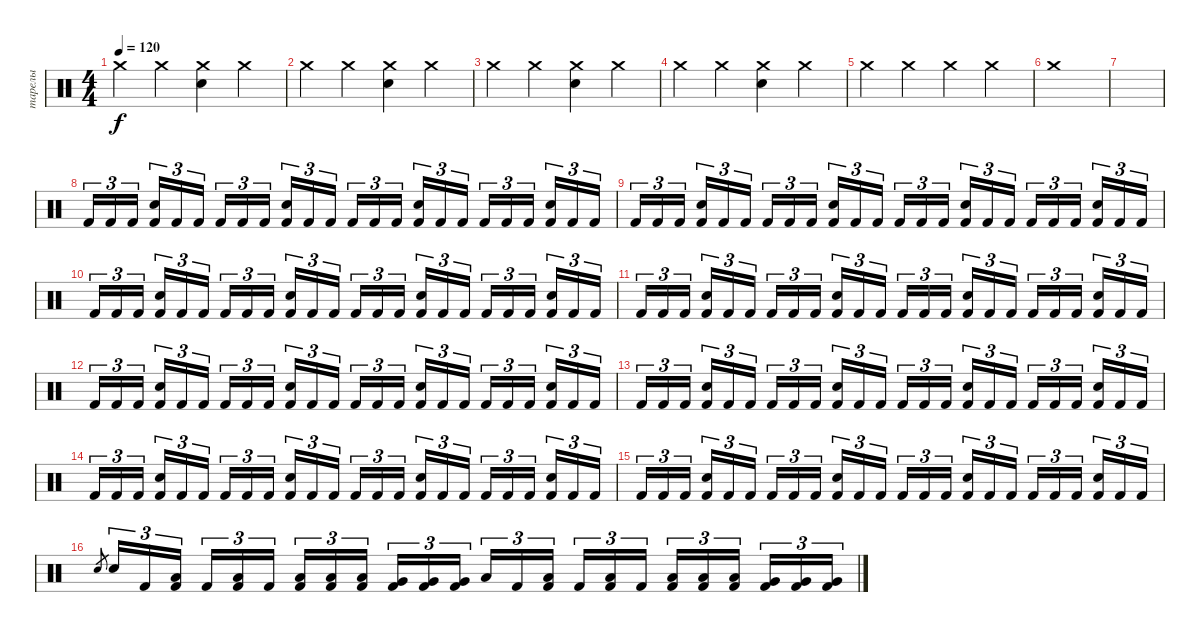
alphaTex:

\track ("тарелы" "тарелы") {instrument percussion}
\staff {score}
\articulation defaults
\ts (4 4)
\tempo 120
\clef neutral
\ks c "Crash medium (hit)".4{dy f} "Crash medium (hit)".4
("Crash medium (hit)" "Snare (hit) 2").4 "Crash medium (hit)".4 |
"Crash medium (hit)".4 "Crash medium (hit)".4 ("Crash medium (hit)" "Snare (hit) 2").4 "Crash medium (hit)".4 |
"Crash medium (hit)".4 "Crash medium (hit)".4 ("Crash medium (hit)" "Snare (hit) 2").4 "Crash medium (hit)".4 |
"Crash medium (hit)".4 "Crash medium (hit)".4 ("Crash medium (hit)" "Snare (hit) 2").4 "Crash medium (hit)".4 |
"Crash medium (hit)".4 "Crash medium (hit)".4 "Crash medium (hit)".4 "Crash medium (hit)".4 |
"Crash medium (hit)".1 |
|
"Kick (hit) 2".16{tu (3 2)} "Kick (hit) 2".16{tu (3 2)} "Kick (hit) 2".16{tu (3 2) beam splitsecondary} ("Snare (hit) 2" "Kick (hit) 2").16{tu (3 2)} "Kick (hit) 2".16{tu (3 2)} "Kick (hit) 2".16{tu (3 2)} "Kick (hit) 2".16{tu (3 2)} "Kick (hit) 2".16{tu (3 2)} "Kick (hit) 2".16{tu (3 2) beam splitsecondary} ("Snare (hit) 2" "Kick (hit) 2").16{tu (3 2)} "Kick (hit) 2".16{tu (3 2)} "Kick (hit) 2".16{tu (3 2)} "Kick (hit) 2".16{tu (3 2)} "Kick (hit) 2".16{tu (3 2)} "Kick (hit) 2".16{tu (3 2) beam splitsecondary} ("Snare (hit) 2" "Kick (hit) 2").16{tu (3 2)} "Kick (hit) 2".16{tu (3 2)} "Kick (hit) 2".16{tu (3 2)} "Kick (hit) 2".16{tu (3 2)} "Kick (hit) 2".16{tu (3 2)} "Kick (hit) 2".16{tu (3 2) beam splitsecondary} ("Snare (hit) 2" "Kick (hit) 2").16{tu (3 2)} "Kick (hit) 2".16{tu (3 2)} "Kick (hit) 2".16{tu (3 2)} |
"Kick (hit) 2".16{tu (3 2)} "Kick (hit) 2".16{tu (3 2)} "Kick (hit) 2".16{tu (3 2) beam splitsecondary} ("Snare (hit) 2" "Kick (hit) 2").16{tu (3 2)} "Kick (hit) 2".16{tu (3 2)} "Kick (hit) 2".16{tu (3 2)} "Kick (hit) 2".16{tu (3 2)} "Kick (hit) 2".16{tu (3 2)} "Kick (hit) 2".16{tu (3 2) beam splitsecondary} ("Snare (hit) 2" "Kick (hit) 2").16{tu (3 2)} "Kick (hit) 2".16{tu (3 2)} "Kick (hit) 2".16{tu (3 2)} "Kick (hit) 2".16{tu (3 2)} "Kick (hit) 2".16{tu (3 2)} "Kick (hit) 2".16{tu (3 2) beam splitsecondary} ("Snare (hit) 2" "Kick (hit) 2").16{tu (3 2)} "Kick (hit) 2".16{tu (3 2)} "Kick (hit) 2".16{tu (3 2)} "Kick (hit) 2".16{tu (3 2)} "Kick (hit) 2".16{tu (3 2)} "Kick (hit) 2".16{tu (3 2) beam splitsecondary} ("Snare (hit) 2" "Kick (hit) 2").16{tu (3 2)} "Kick (hit) 2".16{tu (3 2)} "Kick (hit) 2".16{tu (3 2)} |
"Kick (hit) 2".16{tu (3 2)} "Kick (hit) 2".16{tu (3 2)} "Kick (hit) 2".16{tu (3 2) beam splitsecondary} ("Snare (hit) 2" "Kick (hit) 2").16{tu (3 2)} "Kick (hit) 2".16{tu (3 2)} "Kick (hit) 2".16{tu (3 2)} "Kick (hit) 2".16{tu (3 2)} "Kick (hit) 2".16{tu (3 2)} "Kick (hit) 2".16{tu (3 2) beam splitsecondary} ("Snare (hit) 2" "Kick (hit) 2").16{tu (3 2)} "Kick (hit) 2".16{tu (3 2)} "Kick (hit) 2".16{tu (3 2)} "Kick (hit) 2".16{tu (3 2)} "Kick (hit) 2".16{tu (3 2)} "Kick (hit) 2".16{tu (3 2) beam splitsecondary} ("Snare (hit) 2" "Kick (hit) 2").16{tu (3 2)} "Kick (hit) 2".16{tu (3 2)} "Kick (hit) 2".16{tu (3 2)} "Kick (hit) 2".16{tu (3 2)} "Kick (hit) 2".16{tu (3 2)} "Kick (hit) 2".16{tu (3 2) beam splitsecondary} ("Snare (hit) 2" "Kick (hit) 2").16{tu (3 2)} "Kick (hit) 2".16{tu (3 2)} "Kick (hit) 2".16{tu (3 2)} |
"Kick (hit) 2".16{tu (3 2)} "Kick (hit) 2".16{tu (3 2)} "Kick (hit) 2".16{tu (3 2) beam splitsecondary} ("Snare (hit) 2" "Kick (hit) 2").16{tu (3 2)} "Kick (hit) 2".16{tu (3 2)} "Kick (hit) 2".16{tu (3 2)} "Kick (hit) 2".16{tu (3 2)} "Kick (hit) 2".16{tu (3 2)} "Kick (hit) 2".16{tu (3 2) beam splitsecondary} ("Snare (hit) 2" "Kick (hit) 2").16{tu (3 2)} "Kick (hit) 2".16{tu (3 2)} "Kick (hit) 2".16{tu (3 2)} "Kick (hit) 2".16{tu (3 2)} "Kick (hit) 2".16{tu (3 2)} "Kick (hit) 2".16{tu (3 2) beam splitsecondary} ("Snare (hit) 2" "Kick (hit) 2").16{tu (3 2)} "Kick (hit) 2".16{tu (3 2)} "Kick (hit) 2".16{tu (3 2)} "Kick (hit) 2".16{tu (3 2)} "Kick (hit) 2".16{tu (3 2)} "Kick (hit) 2".16{tu (3 2) beam splitsecondary} ("Snare (hit) 2" "Kick (hit) 2").16{tu (3 2)} "Kick (hit) 2".16{tu (3 2)} "Kick (hit) 2".16{tu (3 2)} |
"Kick (hit) 2".16{tu (3 2)} "Kick (hit) 2".16{tu (3 2)} "Kick (hit) 2".16{tu (3 2) beam splitsecondary} ("Snare (hit) 2" "Kick (hit) 2").16{tu (3 2)} "Kick (hit) 2".16{tu (3 2)} "Kick (hit) 2".16{tu (3 2)} "Kick (hit) 2".16{tu (3 2)} "Kick (hit) 2".16{tu (3 2)} "Kick (hit) 2".16{tu (3 2) beam splitsecondary} ("Snare (hit) 2" "Kick (hit) 2").16{tu (3 2)} "Kick (hit) 2".16{tu (3 2)} "Kick (hit) 2".16{tu (3 2)} "Kick (hit) 2".16{tu (3 2)} "Kick (hit) 2".16{tu (3 2)} "Kick (hit) 2".16{tu (3 2) beam splitsecondary} ("Snare (hit) 2" "Kick (hit) 2").16{tu (3 2)} "Kick (hit) 2".16{tu (3 2)} "Kick (hit) 2".16{tu (3 2)} "Kick (hit) 2".16{tu (3 2)} "Kick (hit) 2".16{tu (3 2)} "Kick (hit) 2".16{tu (3 2) beam splitsecondary} ("Snare (hit) 2" "Kick (hit) 2").16{tu (3 2)} "Kick (hit) 2".16{tu (3 2)} "Kick (hit) 2".16{tu (3 2)} |
"Kick (hit) 2".16{tu (3 2)} "Kick (hit) 2".16{tu (3 2)} "Kick (hit) 2".16{tu (3 2) beam splitsecondary} ("Snare (hit) 2" "Kick (hit) 2").16{tu (3 2)} "Kick (hit) 2".16{tu (3 2)} "Kick (hit) 2".16{tu (3 2)} "Kick (hit) 2".16{tu (3 2)} "Kick (hit) 2".16{tu (3 2)} "Kick (hit) 2".16{tu (3 2) beam splitsecondary} ("Snare (hit) 2" "Kick (hit) 2").16{tu (3 2)} "Kick (hit) 2".16{tu (3 2)} "Kick (hit) 2".16{tu (3 2)} "Kick (hit) 2".16{tu (3 2)} "Kick (hit) 2".16{tu (3 2)} "Kick (hit) 2".16{tu (3 2) beam splitsecondary} ("Snare (hit) 2" "Kick (hit) 2").16{tu (3 2)} "Kick (hit) 2".16{tu (3 2)} "Kick (hit) 2".16{tu (3 2)} "Kick (hit) 2".16{tu (3 2)} "Kick (hit) 2".16{tu (3 2)} "Kick (hit) 2".16{tu (3 2) beam splitsecondary} ("Snare (hit) 2" "Kick (hit) 2").16{tu (3 2)} "Kick (hit) 2".16{tu (3 2)} "Kick (hit) 2".16{tu (3 2)} |
"Kick (hit) 2".16{tu (3 2)} "Kick (hit) 2".16{tu (3 2)} "Kick (hit) 2".16{tu (3 2) beam splitsecondary} ("Snare (hit) 2" "Kick (hit) 2").16{tu (3 2)} "Kick (hit) 2".16{tu (3 2)} "Kick (hit) 2".16{tu (3 2)} "Kick (hit) 2".16{tu (3 2)} "Kick (hit) 2".16{tu (3 2)} "Kick (hit) 2".16{tu (3 2) beam splitsecondary} ("Snare (hit) 2" "Kick (hit) 2").16{tu (3 2)} "Kick (hit) 2".16{tu (3 2)} "Kick (hit) 2".16{tu (3 2)} "Kick (hit) 2".16{tu (3 2)} "Kick (hit) 2".16{tu (3 2)} "Kick (hit) 2".16{tu (3 2) beam splitsecondary} ("Snare (hit) 2" "Kick (hit) 2").16{tu (3 2)} "Kick (hit) 2".16{tu (3 2)} "Kick (hit) 2".16{tu (3 2)} "Kick (hit) 2".16{tu (3 2)} "Kick (hit) 2".16{tu (3 2)} "Kick (hit) 2".16{tu (3 2) beam splitsecondary} ("Snare (hit) 2" "Kick (hit) 2").16{tu (3 2)} "Kick (hit) 2".16{tu (3 2)} "Kick (hit) 2".16{tu (3 2)} |
"Kick (hit) 2".16{tu (3 2)} "Kick (hit) 2".16{tu (3 2)} "Kick (hit) 2".16{tu (3 2) beam splitsecondary} ("Snare (hit) 2" "Kick (hit) 2").16{tu (3 2)} "Kick (hit) 2".16{tu (3 2)} "Kick (hit) 2".16{tu (3 2)} "Kick (hit) 2".16{tu (3 2)} "Kick (hit) 2".16{tu (3 2)} "Kick (hit) 2".16{tu (3 2) beam splitsecondary} ("Snare (hit) 2" "Kick (hit) 2").16{tu (3 2)} "Kick (hit) 2".16{tu (3 2)} "Kick (hit) 2".16{tu (3 2)} "Kick (hit) 2".16{tu (3 2)} "Kick (hit) 2".16{tu (3 2)} "Kick (hit) 2".16{tu (3 2) beam splitsecondary} ("Snare (hit) 2" "Kick (hit) 2").16{tu (3 2)} "Kick (hit) 2".16{tu (3 2)} "Kick (hit) 2".16{tu (3 2)} "Kick (hit) 2".16{tu (3 2)} "Kick (hit) 2".16{tu (3 2)} "Kick (hit) 2".16{tu (3 2) beam splitsecondary} ("Snare (hit) 2" "Kick (hit) 2").16{tu (3 2)} "Kick (hit) 2".16{tu (3 2)} "Kick (hit) 2".16{tu (3 2)} |
"Electric Snare (hit)".8{gr} "Electric Snare (hit)".16{tu (3 2)} "Kick (hit) 2".16{tu (3 2)} ("Low Tom (hit)" "Kick (hit) 2").16{tu (3 2) beam splitsecondary} "Kick (hit) 2".16{tu (3 2)} ("Low Tom (hit)" "Kick (hit) 2").16{tu (3 2)} "Kick (hit) 2".16{tu (3 2)} ("Low Tom (hit)" "Kick (hit) 2").16{tu (3 2)} ("Low Tom (hit)" "Kick (hit) 2").16{tu (3 2)} ("Low Tom (hit)" "Kick (hit) 2").16{tu (3 2) beam splitsecondary} ("Very Low Tom (hit)" "Kick (hit) 2").16{tu (3 2)} ("Very Low Tom (hit)" "Kick (hit) 2").16{tu (3 2)} ("Very Low Tom (hit)" "Kick (hit) 2").16{tu (3 2)} "Low Floor Tom (hit)".16{tu (3 2)} "Kick (hit) 2".16{tu (3 2)} ("Low Tom (hit)" "Kick (hit) 2").16{tu (3 2) beam splitsecondary} "Kick (hit) 2".16{tu (3 2)} ("Low Tom (hit)" "Kick (hit) 2").16{tu (3 2)} "Kick (hit) 2".16{tu (3 2)} ("Low Tom (hit)" "Kick (hit) 2").16{tu (3 2)} ("Low Tom (hit)" "Kick (hit) 2").16{tu (3 2)} ("Low Tom (hit)" "Kick (hit) 2").16{tu (3 2) beam splitsecondary} ("Very Low Tom (hit)" "Kick (hit) 2").16{tu (3 2)} ("Very Low Tom (hit)" "Kick (hit) 2").16{tu (3 2)} ("Very Low Tom (hit)" "Kick (hit) 2").16{tu (3 2)}
